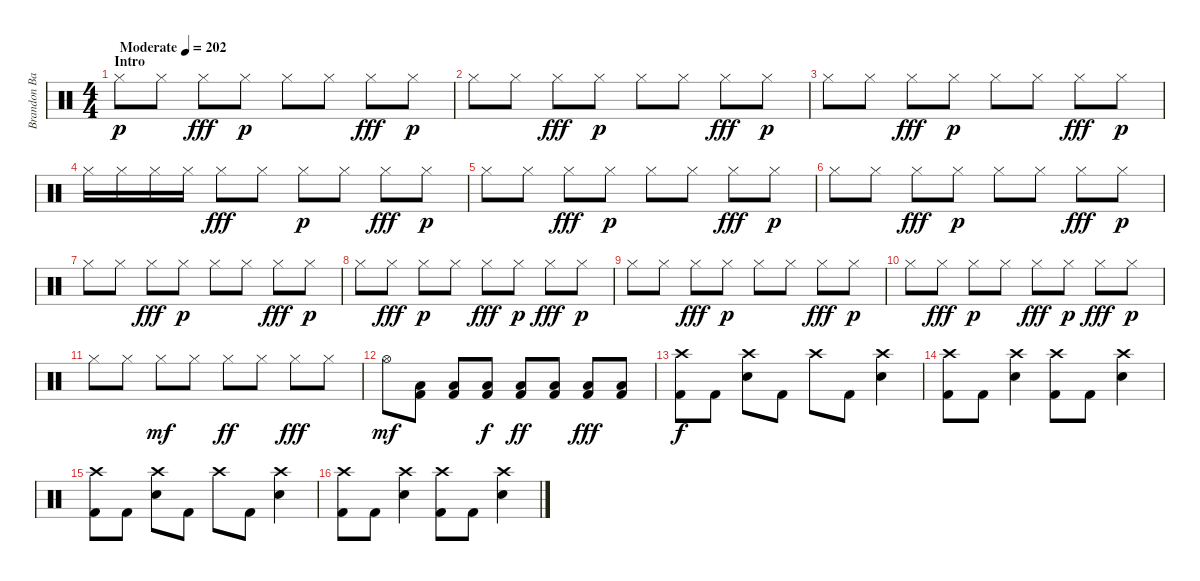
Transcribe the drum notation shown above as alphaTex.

\track ("Brandon Barnes - Drums" "Brandon Ba") {instrument percussion}
\staff {score}
\articulation defaults
\ts (4 4)
\section ("" "Intro")
\tempo (202 "Moderate")
\clef neutral
\ks c "Hi-Hat (closed)".8{dy p} "Hi-Hat (closed)".8 "Hi-Hat (closed)".8{dy fff} "Hi-Hat (closed)".8{dy p} "Hi-Hat (closed)".8 "Hi-Hat (closed)".8 "Hi-Hat (closed)".8{dy fff} "Hi-Hat (closed)".8{dy p}
|
"Hi-Hat (closed)".8 "Hi-Hat (closed)".8 "Hi-Hat (closed)".8{dy fff} "Hi-Hat (closed)".8{dy p} "Hi-Hat (closed)".8 "Hi-Hat (closed)".8 "Hi-Hat (closed)".8{dy fff} "Hi-Hat (closed)".8{dy p} |
"Hi-Hat (closed)".8 "Hi-Hat (closed)".8 "Hi-Hat (closed)".8{dy fff} "Hi-Hat (closed)".8{dy p} "Hi-Hat (closed)".8 "Hi-Hat (closed)".8 "Hi-Hat (closed)".8{dy fff} "Hi-Hat (closed)".8{dy p} |
"Hi-Hat (closed)".16 "Hi-Hat (closed)".16 "Hi-Hat (closed)".16 "Hi-Hat (closed)".16 "Hi-Hat (closed)".8{dy fff} "Hi-Hat (closed)".8 "Hi-Hat (closed)".8{dy p} "Hi-Hat (closed)".8 "Hi-Hat (closed)".8{dy fff} "Hi-Hat (closed)".8{dy p} |
"Hi-Hat (closed)".8 "Hi-Hat (closed)".8 "Hi-Hat (closed)".8{dy fff} "Hi-Hat (closed)".8{dy p} "Hi-Hat (closed)".8 "Hi-Hat (closed)".8 "Hi-Hat (closed)".8{dy fff} "Hi-Hat (closed)".8{dy p} |
"Hi-Hat (closed)".8 "Hi-Hat (closed)".8 "Hi-Hat (closed)".8{dy fff} "Hi-Hat (closed)".8{dy p} "Hi-Hat (closed)".8 "Hi-Hat (closed)".8 "Hi-Hat (closed)".8{dy fff} "Hi-Hat (closed)".8{dy p} |
"Hi-Hat (closed)".8 "Hi-Hat (closed)".8 "Hi-Hat (closed)".8{dy fff} "Hi-Hat (closed)".8{dy p} "Hi-Hat (closed)".8 "Hi-Hat (closed)".8 "Hi-Hat (closed)".8{dy fff} "Hi-Hat (closed)".8{dy p} |
"Hi-Hat (closed)".8 "Hi-Hat (closed)".8{dy fff} "Hi-Hat (closed)".8{dy p} "Hi-Hat (closed)".8 "Hi-Hat (closed)".8{dy fff} "Hi-Hat (closed)".8{dy p} "Hi-Hat (closed)".8{dy fff} "Hi-Hat (closed)".8{dy p} |
"Hi-Hat (closed)".8 "Hi-Hat (closed)".8 "Hi-Hat (closed)".8{dy fff} "Hi-Hat (closed)".8{dy p} "Hi-Hat (closed)".8 "Hi-Hat (closed)".8 "Hi-Hat (closed)".8{dy fff} "Hi-Hat (closed)".8{dy p} |
"Hi-Hat (closed)".8 "Hi-Hat (closed)".8{dy fff} "Hi-Hat (closed)".8{dy p} "Hi-Hat (closed)".8 "Hi-Hat (closed)".8{dy fff} "Hi-Hat (closed)".8{dy p} "Hi-Hat (closed)".8{dy fff} "Hi-Hat (closed)".8{dy p} |
"Hi-Hat (closed)".8{volume 16} "Hi-Hat (closed)".8 "Hi-Hat (closed)".8{dy mf} "Hi-Hat (closed)".8 "Hi-Hat (closed)".8{dy ff} "Hi-Hat (closed)".8 "Hi-Hat (closed)".8{dy fff} "Hi-Hat (closed)".8 |
"Hi-Hat (open)".8{dy mf} ("Low Floor Tom (hit)" "Kick (hit) 2").8 ("Low Floor Tom (hit)" "Kick (hit) 2").8 ("Low Floor Tom (hit)" "Kick (hit) 2").8{dy f} ("Low Floor Tom (hit)" "Kick (hit) 2").8{dy ff} ("Low Floor Tom (hit)" "Kick (hit) 2").8 ("Low Floor Tom (hit)" "Kick (hit) 2").8{dy fff} ("Low Floor Tom (hit)" "Kick (hit) 2").8 |
("Kick (hit) 2" "Crash high (hit)").8{dy f} "Kick (hit) 2".8 ("Snare (hit) 2" "Crash high (hit)").8 "Kick (hit) 2".8 "Crash high (hit)".8 "Kick (hit) 2".8 ("Snare (hit) 2" "Crash high (hit)").4 |
("Kick (hit) 2" "Crash high (hit)").8 "Kick (hit) 2".8 ("Snare (hit) 2" "Crash high (hit)").4 ("Kick (hit) 2" "Crash high (hit)").8 "Kick (hit) 2".8 ("Snare (hit) 2" "Crash high (hit)").4 |
("Kick (hit) 2" "Crash high (hit)").8 "Kick (hit) 2".8 ("Snare (hit) 2" "Crash high (hit)").8 "Kick (hit) 2".8 "Crash high (hit)".8 "Kick (hit) 2".8 ("Snare (hit) 2" "Crash high (hit)").4 |
("Kick (hit) 2" "Crash high (hit)").8 "Kick (hit) 2".8 ("Snare (hit) 2" "Crash high (hit)").4 ("Kick (hit) 2" "Crash high (hit)").8 "Kick (hit) 2".8 ("Snare (hit) 2" "Crash high (hit)").4
